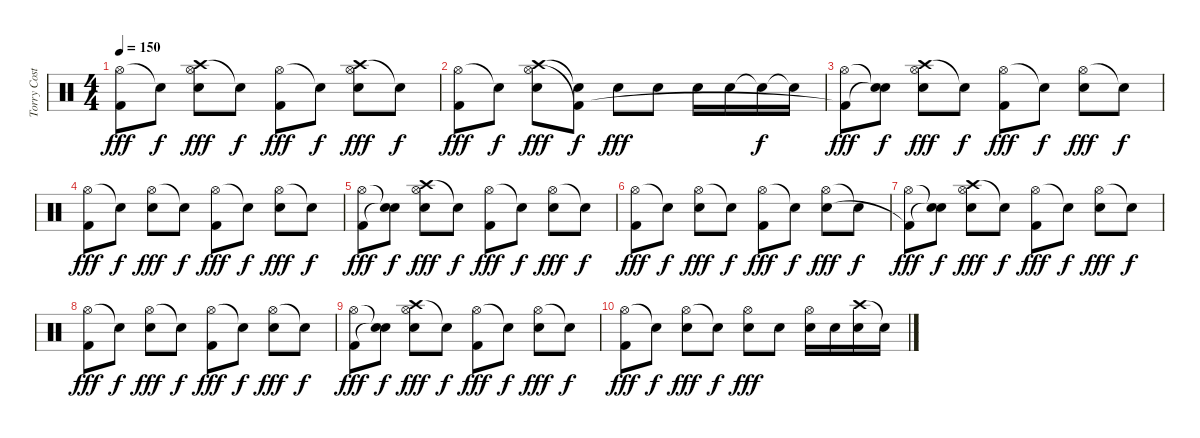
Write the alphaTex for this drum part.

\track ("Torry Costellano" "Torry Cost") {instrument percussion}
\staff {score}
\articulation defaults
\ts (4 4)
\tempo 150
\clef neutral
\ks c
("Hi-Hat (open)" "Kick (hit) 2").8{dy fff} "Snare (hit)"{t}.8{dy f} ("Crash high (hit)" "Hi-Hat (open)" "Electric Snare (hit)").8{dy fff} "Snare (hit)"{t}.8{dy f} ("Hi-Hat (open)" "Kick (hit) 2").8{dy fff} "Snare (hit)"{t}.8{dy f} ("Crash high (hit)" "Hi-Hat (open)" "Electric Snare (hit)").8{dy fff} "Snare (hit)"{t}.8{dy f} |
("Hi-Hat (open)" "Kick (hit) 2").8{dy fff} "Snare (hit)"{t}.8{dy f} ("Crash high (hit)" "Hi-Hat (open)" "Electric Snare (hit)").8{dy fff} ("Snare (hit)"{t} "Kick (hit) 2"{t}).8{dy f} "Electric Snare (hit)".8{dy fff} "Electric Snare (hit)".8 "Electric Snare (hit)".16 "Electric Snare (hit)".16 "Electric Snare (hit)"{t}.16{dy f} "Snare (hit)"{t}.16 |
("Hi-Hat (open)" "Kick (hit) 2"{t}).8{dy fff} ("Snare (hit)"{t} "Snare (hit)"{t}).8{dy f} ("Crash high (hit)" "Hi-Hat (open)" "Electric Snare (hit)").8{dy fff} "Snare (hit)"{t}.8{dy f} ("Hi-Hat (open)" "Kick (hit) 2").8{dy fff} "Snare (hit)"{t}.8{dy f} ("Hi-Hat (open)" "Electric Snare (hit)").8{dy fff} "Snare (hit)"{t}.8{dy f} |
("Hi-Hat (open)" "Kick (hit) 2").8{dy fff} "Snare (hit)"{t}.8{dy f} ("Hi-Hat (open)" "Electric Snare (hit)").8{dy fff} "Snare (hit)"{t}.8{dy f} ("Hi-Hat (open)" "Kick (hit) 2").8{dy fff} "Snare (hit)"{t}.8{dy f} ("Hi-Hat (open)" "Electric Snare (hit)").8{dy fff} "Snare (hit)"{t}.8{dy f} |
("Hi-Hat (open)" "Kick (hit) 2").8{dy fff} ("Snare (hit)"{t} "Snare (hit)"{t}).8{dy f} ("Crash high (hit)" "Hi-Hat (open)" "Electric Snare (hit)").8{dy fff} "Snare (hit)"{t}.8{dy f} ("Hi-Hat (open)" "Kick (hit) 2").8{dy fff} "Snare (hit)"{t}.8{dy f} ("Hi-Hat (open)" "Electric Snare (hit)").8{dy fff} "Snare (hit)"{t}.8{dy f} |
("Hi-Hat (open)" "Kick (hit) 2").8{dy fff} "Snare (hit)"{t}.8{dy f} ("Hi-Hat (open)" "Electric Snare (hit)").8{dy fff} "Snare (hit)"{t}.8{dy f} ("Hi-Hat (open)" "Kick (hit) 2").8{dy fff} "Snare (hit)"{t}.8{dy f} ("Hi-Hat (open)" "Electric Snare (hit)").8{dy fff} "Snare (hit)"{t}.8{dy f} |
("Hi-Hat (open)" "Kick (hit) 2"{t}).8{dy fff} ("Snare (hit)"{t} "Snare (hit)"{t}).8{dy f} ("Crash high (hit)" "Hi-Hat (open)" "Electric Snare (hit)").8{dy fff} "Snare (hit)"{t}.8{dy f} ("Hi-Hat (open)" "Kick (hit) 2").8{dy fff} "Snare (hit)"{t}.8{dy f} ("Hi-Hat (open)" "Electric Snare (hit)").8{dy fff} "Snare (hit)"{t}.8{dy f} |
("Hi-Hat (open)" "Kick (hit) 2").8{dy fff} "Snare (hit)"{t}.8{dy f} ("Hi-Hat (open)" "Electric Snare (hit)").8{dy fff} "Snare (hit)"{t}.8{dy f} ("Hi-Hat (open)" "Kick (hit) 2").8{dy fff} "Snare (hit)"{t}.8{dy f} ("Hi-Hat (open)" "Electric Snare (hit)").8{dy fff} "Snare (hit)"{t}.8{dy f} |
("Hi-Hat (open)" "Kick (hit) 2").8{dy fff} ("Snare (hit)"{t} "Snare (hit)"{t}).8{dy f} ("Crash high (hit)" "Hi-Hat (open)" "Electric Snare (hit)").8{dy fff} "Snare (hit)"{t}.8{dy f} ("Hi-Hat (open)" "Kick (hit) 2").8{dy fff} "Snare (hit)"{t}.8{dy f} ("Hi-Hat (open)" "Electric Snare (hit)").8{dy fff} "Snare (hit)"{t}.8{dy f} |
("Hi-Hat (open)" "Kick (hit) 2").8{dy fff} "Snare (hit)"{t}.8{dy f} ("Hi-Hat (open)" "Electric Snare (hit)").8{dy fff} "Snare (hit)"{t}.8{dy f} ("Hi-Hat (open)" "Electric Snare (hit)").8{dy fff} "Electric Snare (hit)".8 ("Hi-Hat (open)" "Electric Snare (hit)").16 "Electric Snare (hit)".16 ("Crash high (hit)" "Electric Snare (hit)").16 "Snare (hit)"{t}.16
